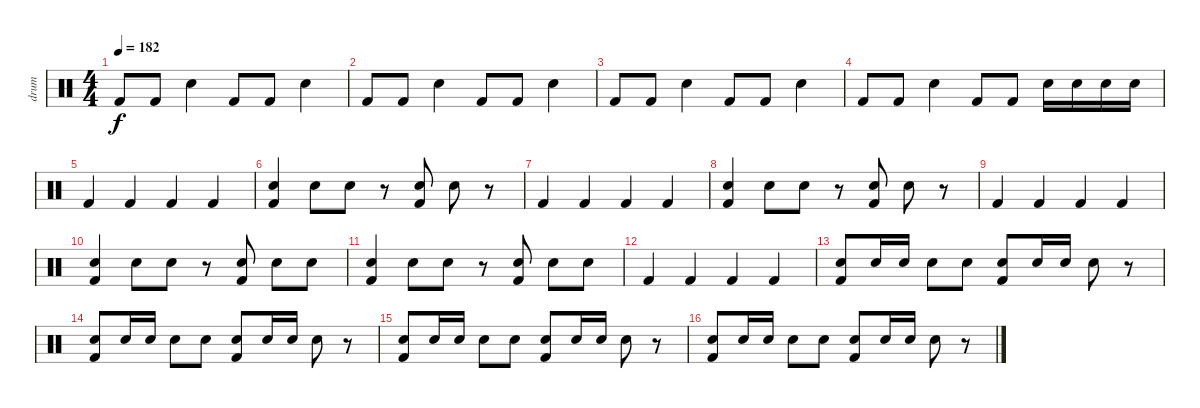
\track ("drum" "drum") {instrument percussion}
\staff {score}
\articulation defaults
\ts (4 4)
\tempo 182
\clef neutral
\ks c "Kick (hit) 2".8{dy f} "Kick (hit) 2".8 "Electric Snare (hit)".4 "Kick (hit) 2".8 "Kick (hit) 2".8 "Electric Snare (hit)".4
|
"Kick (hit) 2".8 "Kick (hit) 2".8 "Electric Snare (hit)".4 "Kick (hit) 2".8 "Kick (hit) 2".8 "Electric Snare (hit)".4 |
"Kick (hit) 2".8 "Kick (hit) 2".8 "Electric Snare (hit)".4 "Kick (hit) 2".8 "Kick (hit) 2".8 "Electric Snare (hit)".4 |
"Kick (hit) 2".8 "Kick (hit) 2".8 "Electric Snare (hit)".4 "Kick (hit) 2".8 "Kick (hit) 2".8 "Electric Snare (hit)".16 "Electric Snare (hit)".16 "Electric Snare (hit)".16 "Electric Snare (hit)".16 |
"Kick (hit) 2".4 "Kick (hit) 2".4 "Kick (hit) 2".4 "Kick (hit) 2".4 |
("Electric Snare (hit)" "Kick (hit) 2").4 "Electric Snare (hit)".8 "Electric Snare (hit)".8 r.8 ("Electric Snare (hit)" "Kick (hit) 2").8 "Electric Snare (hit)".8 r.8 |
"Kick (hit) 2".4 "Kick (hit) 2".4 "Kick (hit) 2".4 "Kick (hit) 2".4 |
("Electric Snare (hit)" "Kick (hit) 2").4 "Electric Snare (hit)".8 "Electric Snare (hit)".8 r.8 ("Electric Snare (hit)" "Kick (hit) 2").8 "Electric Snare (hit)".8 r.8 |
"Kick (hit) 2".4 "Kick (hit) 2".4 "Kick (hit) 2".4 "Kick (hit) 2".4 |
("Electric Snare (hit)" "Kick (hit) 2").4 "Electric Snare (hit)".8 "Electric Snare (hit)".8 r.8 ("Electric Snare (hit)" "Kick (hit) 2").8 "Electric Snare (hit)".8 "Electric Snare (hit)".8 |
("Electric Snare (hit)" "Kick (hit) 2").4 "Electric Snare (hit)".8 "Electric Snare (hit)".8 r.8 ("Electric Snare (hit)" "Kick (hit) 2").8 "Electric Snare (hit)".8 "Electric Snare (hit)".8 |
"Kick (hit) 2".4 "Kick (hit) 2".4 "Kick (hit) 2".4 "Kick (hit) 2".4 |
("Electric Snare (hit)" "Kick (hit) 2").8 "Electric Snare (hit)".16 "Electric Snare (hit)".16 "Electric Snare (hit)".8 "Electric Snare (hit)".8 ("Electric Snare (hit)" "Kick (hit) 2").8 "Electric Snare (hit)".16 "Electric Snare (hit)".16 "Electric Snare (hit)".8 r.8 |
("Electric Snare (hit)" "Kick (hit) 2").8 "Electric Snare (hit)".16 "Electric Snare (hit)".16 "Electric Snare (hit)".8 "Electric Snare (hit)".8 ("Electric Snare (hit)" "Kick (hit) 2").8 "Electric Snare (hit)".16 "Electric Snare (hit)".16 "Electric Snare (hit)".8 r.8 |
("Electric Snare (hit)" "Kick (hit) 2").8 "Electric Snare (hit)".16 "Electric Snare (hit)".16 "Electric Snare (hit)".8 "Electric Snare (hit)".8 ("Electric Snare (hit)" "Kick (hit) 2").8 "Electric Snare (hit)".16 "Electric Snare (hit)".16 "Electric Snare (hit)".8 r.8 |
("Electric Snare (hit)" "Kick (hit) 2").8 "Electric Snare (hit)".16 "Electric Snare (hit)".16 "Electric Snare (hit)".8 "Electric Snare (hit)".8 ("Electric Snare (hit)" "Kick (hit) 2").8 "Electric Snare (hit)".16 "Electric Snare (hit)".16 "Electric Snare (hit)".8 r.8
